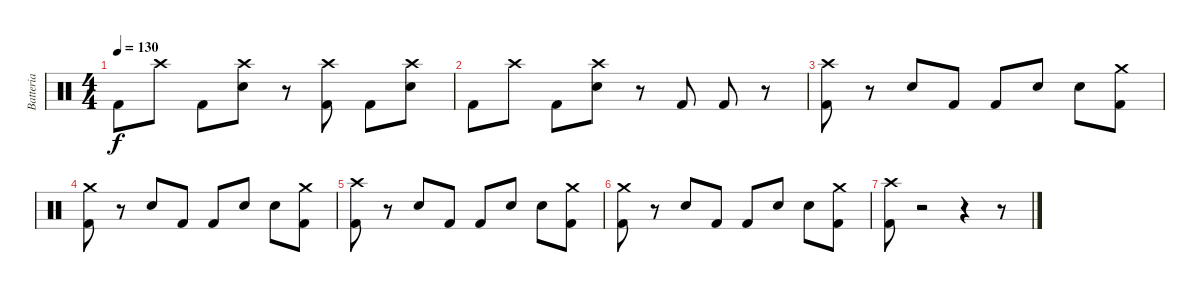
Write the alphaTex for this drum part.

\track ("Batteria" "Batteria") {instrument percussion}
\staff {score}
\articulation defaults
\ts (4 4)
\tempo 130
\clef neutral
\ks c "Kick (hit) 2".8{dy f} "Crash high (hit)".8 "Kick (hit) 2".8
("Crash high (hit)" "Electric Snare (hit)").8 r.8 ("Crash high (hit)" "Kick (hit) 2").8 "Kick (hit) 2".8 ("Crash high (hit)" "Electric Snare (hit)").8 |
"Kick (hit) 2".8 "Crash high (hit)".8 "Kick (hit) 2".8 ("Electric Snare (hit)" "Crash high (hit)").8 r.8 "Kick (hit) 2".8 "Kick (hit) 2".8 r.8 |
("Crash high (hit)" "Kick (hit) 2").8 r.8 "Electric Snare (hit)".8 "Kick (hit) 2".8 "Kick (hit) 2".8 "Electric Snare (hit)".8 "Electric Snare (hit)".8 ("Crash medium (hit)" "Kick (hit) 2").8 |
("Crash medium (hit)" "Kick (hit) 2").8 r.8 "Electric Snare (hit)".8 "Kick (hit) 2".8 "Kick (hit) 2".8 "Electric Snare (hit)".8 "Electric Snare (hit)".8 ("Crash medium (hit)" "Kick (hit) 2").8 |
("Crash high (hit)" "Kick (hit) 2").8 r.8 "Electric Snare (hit)".8 "Kick (hit) 2".8 "Kick (hit) 2".8 "Electric Snare (hit)".8 "Electric Snare (hit)".8 ("Crash medium (hit)" "Kick (hit) 2").8 |
("Crash medium (hit)" "Kick (hit) 2").8 r.8 "Electric Snare (hit)".8 "Kick (hit) 2".8 "Kick (hit) 2".8 "Electric Snare (hit)".8 "Electric Snare (hit)".8 ("Crash medium (hit)" "Kick (hit) 2").8 |
("Crash high (hit)" "Kick (hit) 2").8 r.2 r.4 r.8
